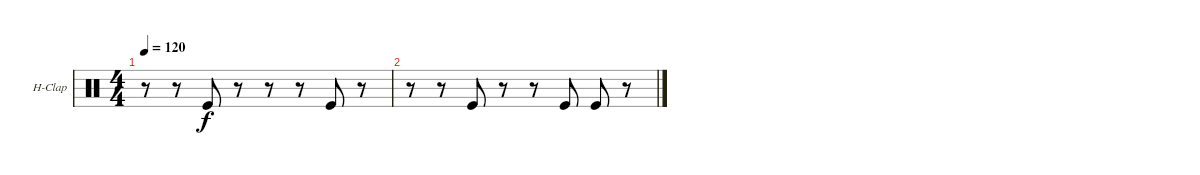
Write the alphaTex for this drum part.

\defaultSystemsLayout 4
\bracketExtendMode groupsimilarinstruments
\firstSystemTrackNameOrientation horizontal
\otherSystemsTrackNameOrientation horizontal
\track ("Hand Clap" "H-Clap") {instrument percussion}
\staff {score}
\articulation defaults
\ts (4 4)
\tempo 120
\clef neutral
\ks c
r.8{dy f} r.8 "Kick (hit)".8 r.8 r.8 r.8 "Kick (hit)".8 r.8 |
r.8 r.8 "Kick (hit)".8 r.8 r.8 "Kick (hit)".8 "Kick (hit)".8 r.8
